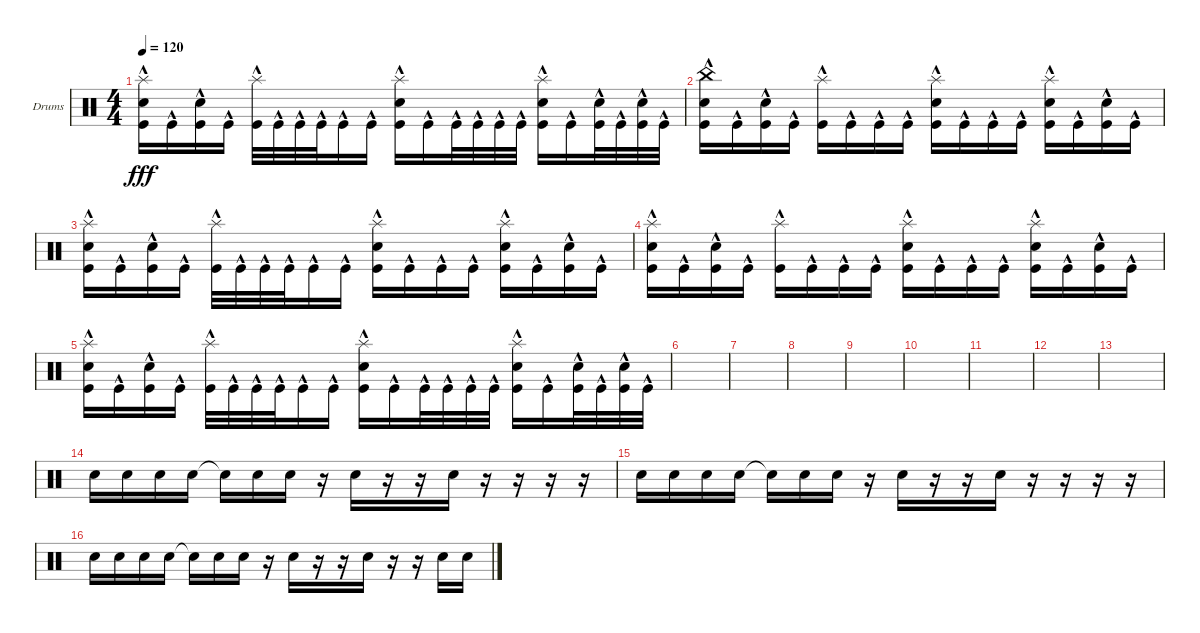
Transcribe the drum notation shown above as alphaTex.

\defaultSystemsLayout 4
\bracketExtendMode groupsimilarinstruments
\firstSystemTrackNameOrientation horizontal
\otherSystemsTrackNameOrientation horizontal
\track ("Drumkit" "Drums") {instrument percussion}
\staff {score}
\articulation defaults
\ts (4 4)
\tempo 120
\clef neutral
\ks c
("Kick (hit)"{hac} "Snare (hit) 2"{hac} "Splash (hit)"{hac}).16{dy fff} "Kick (hit)"{hac}.16 ("Kick (hit)"{hac} "Snare (hit) 2"{hac}).16 "Kick (hit)"{hac}.16 ("Kick (hit)"{hac} "Splash (hit)"{hac}).32 "Kick (hit)"{hac}.32 "Kick (hit)"{hac}.32 "Kick (hit)"{hac}.32 "Kick (hit)"{hac}.16 "Kick (hit)"{hac}.16 ("Kick (hit)"{hac} "Snare (hit) 2"{hac} "Splash (hit)"{hac}).16 "Kick (hit)"{hac}.16 "Kick (hit)"{hac}.32 "Kick (hit)"{hac}.32 "Kick (hit)"{hac}.32 "Kick (hit)"{hac}.32 ("Kick (hit)"{hac} "Snare (hit) 2"{hac} "Splash (hit)"{hac}).16 "Kick (hit)"{hac}.16 ("Kick (hit)"{hac} "Snare (hit) 2"{hac}).32 "Kick (hit)"{hac}.32 ("Kick (hit)"{hac} "Snare (hit) 2"{hac}).32 "Kick (hit)"{hac}.32 |
("Kick (hit)"{hac} "Snare (hit) 2"{hac} "China (hit)"{hac}).16 "Kick (hit)"{hac}.16 ("Kick (hit)"{hac} "Snare (hit) 2"{hac}).16 "Kick (hit)"{hac}.16 ("Kick (hit)"{hac} "Splash (hit)"{hac}).16 "Kick (hit)"{hac}.16 "Kick (hit)"{hac}.16 "Kick (hit)"{hac}.16 ("Kick (hit)"{hac} "Snare (hit) 2"{hac} "Splash (hit)"{hac}).16 "Kick (hit)"{hac}.16 "Kick (hit)"{hac}.16 "Kick (hit)"{hac}.16 ("Kick (hit)"{hac} "Snare (hit) 2"{hac} "Splash (hit)"{hac}).16 "Kick (hit)"{hac}.16 ("Kick (hit)"{hac} "Snare (hit) 2"{hac}).16 "Kick (hit)"{hac}.16 |
("Kick (hit)"{hac} "Snare (hit) 2"{hac} "Splash (hit)"{hac}).16 "Kick (hit)"{hac}.16 ("Kick (hit)"{hac} "Snare (hit) 2"{hac}).16 "Kick (hit)"{hac}.16 ("Kick (hit)"{hac} "Splash (hit)"{hac}).32 "Kick (hit)"{hac}.32 "Kick (hit)"{hac}.32 "Kick (hit)"{hac}.32 "Kick (hit)"{hac}.16 "Kick (hit)"{hac}.16 ("Kick (hit)"{hac} "Snare (hit) 2"{hac} "Splash (hit)"{hac}).16 "Kick (hit)"{hac}.16 "Kick (hit)"{hac}.16 "Kick (hit)"{hac}.16 ("Kick (hit)"{hac} "Snare (hit) 2"{hac} "Splash (hit)"{hac}).16 "Kick (hit)"{hac}.16 ("Kick (hit)"{hac} "Snare (hit) 2"{hac}).16 "Kick (hit)"{hac}.16 |
("Kick (hit)"{hac} "Snare (hit) 2"{hac} "Splash (hit)"{hac}).16 "Kick (hit)"{hac}.16 ("Kick (hit)"{hac} "Snare (hit) 2"{hac}).16 "Kick (hit)"{hac}.16 ("Kick (hit)"{hac} "Splash (hit)"{hac}).16 "Kick (hit)"{hac}.16 "Kick (hit)"{hac}.16 "Kick (hit)"{hac}.16 ("Kick (hit)"{hac} "Snare (hit) 2"{hac} "Splash (hit)"{hac}).16 "Kick (hit)"{hac}.16 "Kick (hit)"{hac}.16 "Kick (hit)"{hac}.16 ("Kick (hit)"{hac} "Snare (hit) 2"{hac} "Splash (hit)"{hac}).16 "Kick (hit)"{hac}.16 ("Kick (hit)"{hac} "Snare (hit) 2"{hac}).16 "Kick (hit)"{hac}.16 |
("Kick (hit)"{hac} "Snare (hit) 2"{hac} "Splash (hit)"{hac}).16 "Kick (hit)"{hac}.16 ("Kick (hit)"{hac} "Snare (hit) 2"{hac}).16 "Kick (hit)"{hac}.16 ("Kick (hit)"{hac} "Splash (hit)"{hac}).32 "Kick (hit)"{hac}.32 "Kick (hit)"{hac}.32 "Kick (hit)"{hac}.32 "Kick (hit)"{hac}.16 "Kick (hit)"{hac}.16 ("Kick (hit)"{hac} "Snare (hit) 2"{hac} "Splash (hit)"{hac}).16 "Kick (hit)"{hac}.16 "Kick (hit)"{hac}.32 "Kick (hit)"{hac}.32 "Kick (hit)"{hac}.32 "Kick (hit)"{hac}.32 ("Kick (hit)"{hac} "Snare (hit) 2"{hac} "Splash (hit)"{hac}).16 "Kick (hit)"{hac}.16 ("Kick (hit)"{hac} "Snare (hit) 2"{hac}).32 "Kick (hit)"{hac}.32 ("Kick (hit)"{hac} "Snare (hit) 2"{hac}).32 "Kick (hit)"{hac}.32 |
|
|
|
|
|
|
|
|
"Snare (hit) 2".16 "Snare (hit) 2".16 "Snare (hit) 2".16 "Snare (hit) 2".16 "Snare (hit) 2"{t}.16 "Snare (hit) 2".16 "Snare (hit) 2".16 r.16 "Snare (hit) 2".16 r.16 r.16 "Snare (hit) 2".16 r.16 r.16 r.16 r.16 |
"Snare (hit) 2".16 "Snare (hit) 2".16 "Snare (hit) 2".16 "Snare (hit) 2".16 "Snare (hit) 2"{t}.16 "Snare (hit) 2".16 "Snare (hit) 2".16 r.16 "Snare (hit) 2".16 r.16 r.16 "Snare (hit) 2".16 r.16 r.16 r.16 r.16 |
"Snare (hit) 2".16 "Snare (hit) 2".16 "Snare (hit) 2".16 "Snare (hit) 2".16 "Snare (hit) 2"{t}.16 "Snare (hit) 2".16 "Snare (hit) 2".16 r.16 "Snare (hit) 2".16 r.16 r.16 "Snare (hit) 2".16 r.16 r.16 "Snare (hit) 2".16 "Snare (hit) 2".16
